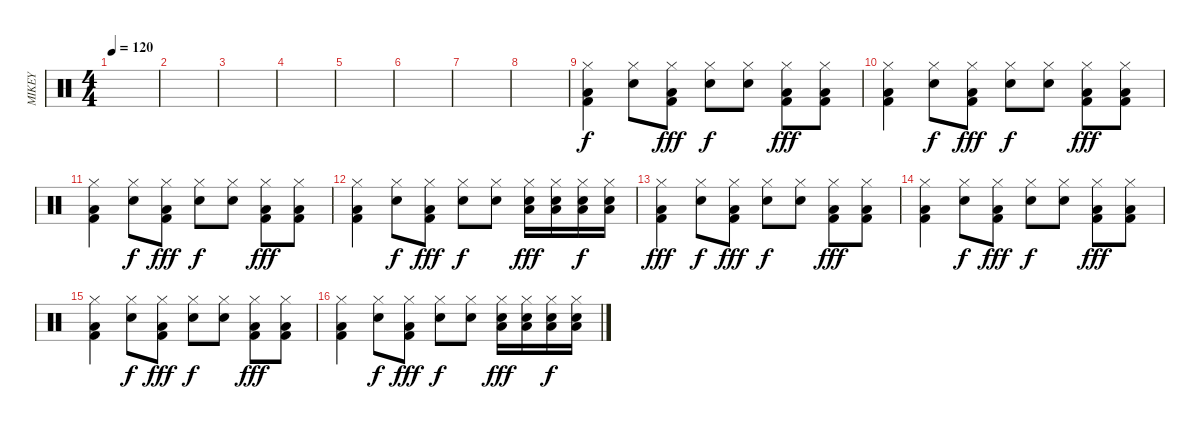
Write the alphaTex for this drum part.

\track ("MIKEY" "MIKEY") {instrument percussion}
\staff {score}
\articulation defaults
\ts (4 4)
\tempo 120
\clef neutral
\ks c
|
|
|
|
|
|
|
|
("Hi-Hat (closed)" "Low Floor Tom (hit)" "Kick (hit) 2").4 ("Hi-Hat (closed)" "Electric Snare (hit)").8{dy f} ("Hi-Hat (closed)" "Low Floor Tom (hit)" "Kick (hit) 2").8{dy fff} ("Hi-Hat (closed)" "Electric Snare (hit)").8{dy f} ("Hi-Hat (closed)" "Electric Snare (hit)").8 ("Hi-Hat (closed)" "Low Floor Tom (hit)" "Kick (hit) 2").8{dy fff} ("Hi-Hat (closed)" "Low Floor Tom (hit)" "Kick (hit) 2").8 |
("Hi-Hat (closed)" "Low Floor Tom (hit)" "Kick (hit) 2").4 ("Hi-Hat (closed)" "Electric Snare (hit)").8{dy f} ("Hi-Hat (closed)" "Low Floor Tom (hit)" "Kick (hit) 2").8{dy fff} ("Hi-Hat (closed)" "Electric Snare (hit)").8{dy f} ("Hi-Hat (closed)" "Electric Snare (hit)").8 ("Hi-Hat (closed)" "Low Floor Tom (hit)" "Kick (hit) 2").8{dy fff} ("Hi-Hat (closed)" "Low Floor Tom (hit)" "Kick (hit) 2").8 |
("Hi-Hat (closed)" "Low Floor Tom (hit)" "Kick (hit) 2").4 ("Hi-Hat (closed)" "Electric Snare (hit)").8{dy f} ("Hi-Hat (closed)" "Low Floor Tom (hit)" "Kick (hit) 2").8{dy fff} ("Hi-Hat (closed)" "Electric Snare (hit)").8{dy f} ("Hi-Hat (closed)" "Electric Snare (hit)").8 ("Hi-Hat (closed)" "Low Floor Tom (hit)" "Kick (hit) 2").8{dy fff} ("Hi-Hat (closed)" "Low Floor Tom (hit)" "Kick (hit) 2").8 |
("Hi-Hat (closed)" "Low Floor Tom (hit)" "Kick (hit) 2").4 ("Hi-Hat (closed)" "Electric Snare (hit)").8{dy f} ("Hi-Hat (closed)" "Low Floor Tom (hit)" "Kick (hit) 2").8{dy fff} ("Hi-Hat (closed)" "Electric Snare (hit)").8{dy f} ("Hi-Hat (closed)" "Electric Snare (hit)").8 ("Hi-Hat (closed)" "Low Floor Tom (hit)" "Electric Snare (hit)").16{dy fff} ("Hi-Hat (closed)" "Low Floor Tom (hit)" "Electric Snare (hit)").16 ("Hi-Hat (closed)" "Low Floor Tom (hit)" "Electric Snare (hit)").16{dy f} ("Hi-Hat (closed)" "Low Floor Tom (hit)" "Electric Snare (hit)").16 |
("Hi-Hat (closed)" "Low Floor Tom (hit)" "Kick (hit) 2").4{dy fff} ("Hi-Hat (closed)" "Electric Snare (hit)").8{dy f} ("Hi-Hat (closed)" "Low Floor Tom (hit)" "Kick (hit) 2").8{dy fff} ("Hi-Hat (closed)" "Electric Snare (hit)").8{dy f} ("Hi-Hat (closed)" "Electric Snare (hit)").8 ("Hi-Hat (closed)" "Low Floor Tom (hit)" "Kick (hit) 2").8{dy fff} ("Hi-Hat (closed)" "Low Floor Tom (hit)" "Kick (hit) 2").8 |
("Hi-Hat (closed)" "Low Floor Tom (hit)" "Kick (hit) 2").4 ("Hi-Hat (closed)" "Electric Snare (hit)").8{dy f} ("Hi-Hat (closed)" "Low Floor Tom (hit)" "Kick (hit) 2").8{dy fff} ("Hi-Hat (closed)" "Electric Snare (hit)").8{dy f} ("Hi-Hat (closed)" "Electric Snare (hit)").8 ("Hi-Hat (closed)" "Low Floor Tom (hit)" "Kick (hit) 2").8{dy fff} ("Hi-Hat (closed)" "Low Floor Tom (hit)" "Kick (hit) 2").8 |
("Hi-Hat (closed)" "Low Floor Tom (hit)" "Kick (hit) 2").4 ("Hi-Hat (closed)" "Electric Snare (hit)").8{dy f} ("Hi-Hat (closed)" "Low Floor Tom (hit)" "Kick (hit) 2").8{dy fff} ("Hi-Hat (closed)" "Electric Snare (hit)").8{dy f} ("Hi-Hat (closed)" "Electric Snare (hit)").8 ("Hi-Hat (closed)" "Low Floor Tom (hit)" "Kick (hit) 2").8{dy fff} ("Hi-Hat (closed)" "Low Floor Tom (hit)" "Kick (hit) 2").8 |
("Hi-Hat (closed)" "Low Floor Tom (hit)" "Kick (hit) 2").4 ("Hi-Hat (closed)" "Electric Snare (hit)").8{dy f} ("Hi-Hat (closed)" "Low Floor Tom (hit)" "Kick (hit) 2").8{dy fff} ("Hi-Hat (closed)" "Electric Snare (hit)").8{dy f} ("Hi-Hat (closed)" "Electric Snare (hit)").8 ("Hi-Hat (closed)" "Low Floor Tom (hit)" "Electric Snare (hit)").16{dy fff} ("Hi-Hat (closed)" "Low Floor Tom (hit)" "Electric Snare (hit)").16 ("Hi-Hat (closed)" "Low Floor Tom (hit)" "Electric Snare (hit)").16{dy f} ("Hi-Hat (closed)" "Low Floor Tom (hit)" "Electric Snare (hit)").16
